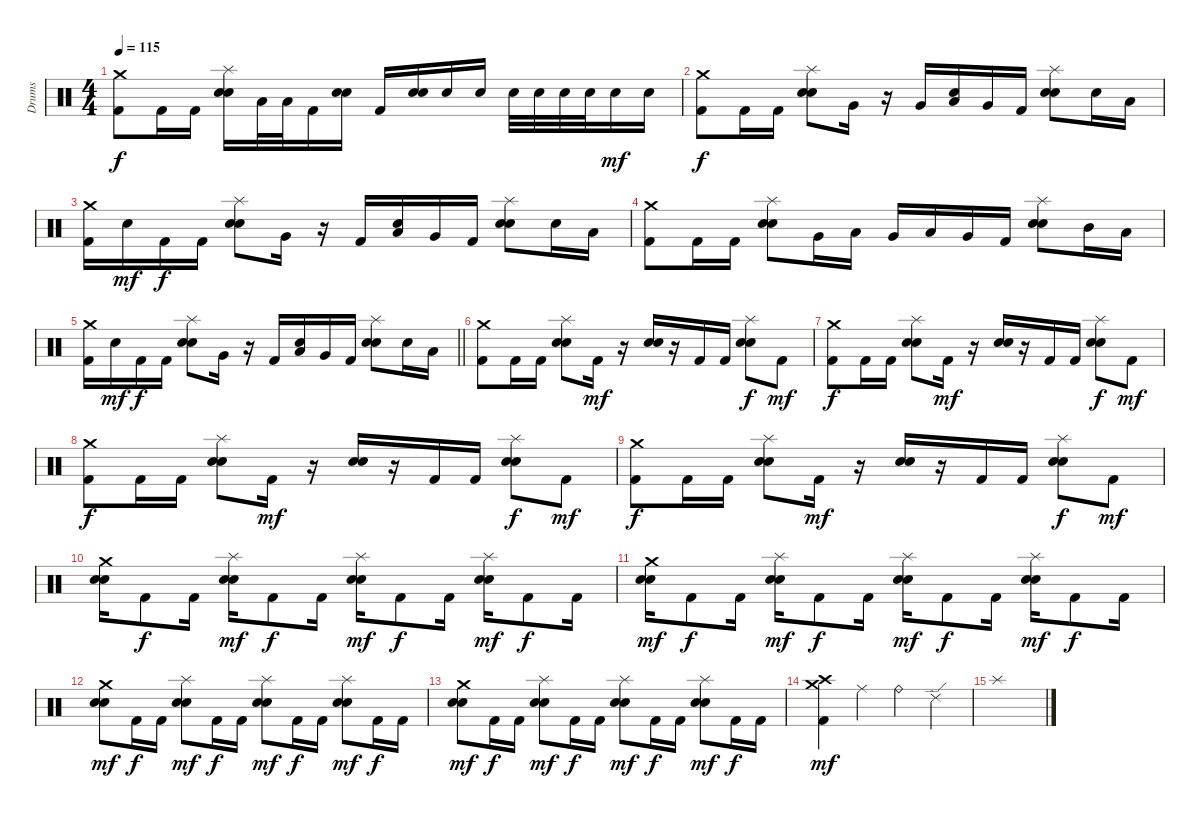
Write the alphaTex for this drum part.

\track ("Drums" "Drums") {instrument percussion}
\staff {score}
\articulation defaults
\ts (4 4)
\tempo 115
\clef neutral
\ks c
("Crash medium (hit)" "Kick (hit) 2").8{dy f} "Kick (hit) 2".16 "Kick (hit) 2".16 ("Splash (hit)" "Electric Snare (hit)" "Snare (hit) 2").16 "Low Tom (hit)".32 "Low Tom (hit)".32 "Kick (hit) 2".16 ("Electric Snare (hit)" "Snare (hit) 2").16 "Kick (hit) 2".16 ("Electric Snare (hit)" "Snare (hit) 2").16 "Electric Snare (hit)".16 "Electric Snare (hit)".16 "Electric Snare (hit)".32 "Electric Snare (hit)".32 "Electric Snare (hit)".32 "Electric Snare (hit)".32 "Electric Snare (hit)".16{dy mf} "Electric Snare (hit)".16 |
("Crash medium (hit)" "Kick (hit) 2").8{dy f} "Kick (hit) 2".16 "Kick (hit) 2".16 ("Splash (hit)" "Electric Snare (hit)" "Snare (hit) 2").8 "Very Low Tom (hit)".16 r.16 "Very Low Tom (hit)".16 ("Electric Snare (hit)" "Low Tom (hit)").16 "Very Low Tom (hit)".16 "Kick (hit) 2".16 ("Splash (hit)" "Electric Snare (hit)" "Snare (hit) 2").8 "Electric Snare (hit)".16 "Low Tom (hit)".16 |
("Crash medium (hit)" "Kick (hit) 2").16 "Electric Snare (hit)".16{dy mf} "Kick (hit) 2".16{dy f} "Kick (hit) 2".16 ("Splash (hit)" "Electric Snare (hit)" "Snare (hit) 2").8 "Very Low Tom (hit)".16 r.16 "Kick (hit) 2".16 ("Electric Snare (hit)" "Low Tom (hit)").16 "Very Low Tom (hit)".16 "Kick (hit) 2".16 ("Splash (hit)" "Electric Snare (hit)" "Snare (hit) 2").8 "Electric Snare (hit)".16 "Low Tom (hit)".16 |
("Crash medium (hit)" "Kick (hit) 2").8 "Kick (hit) 2".16 "Kick (hit) 2".16 ("Splash (hit)" "Electric Snare (hit)" "Snare (hit) 2").8 "Very Low Tom (hit)".16 "Low Tom (hit)".16 "Very Low Tom (hit)".16 "Low Tom (hit)".16 "Very Low Tom (hit)".16 "Kick (hit) 2".16 ("Splash (hit)" "Electric Snare (hit)" "Snare (hit) 2").8 "Mid Tom (hit)".16 "Low Tom (hit)".16 |
\barLineRight lightlight
("Crash medium (hit)" "Kick (hit) 2").16 "Electric Snare (hit)".16{dy mf} "Kick (hit) 2".16{dy f} "Kick (hit) 2".16 ("Splash (hit)" "Electric Snare (hit)" "Snare (hit) 2").8 "Very Low Tom (hit)".16 r.16 "Kick (hit) 2".16 ("Electric Snare (hit)" "Low Tom (hit)").16 "Very Low Tom (hit)".16 "Kick (hit) 2".16 ("Splash (hit)" "Electric Snare (hit)" "Snare (hit) 2").8 "Electric Snare (hit)".16 "Low Tom (hit)".16 |
("Crash medium (hit)" "Kick (hit) 2").8 "Kick (hit) 2".16 "Kick (hit) 2".16 ("Splash (hit)" "Electric Snare (hit)" "Snare (hit) 2").8 "Kick (hit) 2".16{dy mf} r.16 ("Electric Snare (hit)" "Snare (hit) 2").16 r.16 "Kick (hit) 2".16 "Kick (hit) 2".16 ("Splash (hit)" "Electric Snare (hit)" "Snare (hit) 2").8{dy f} "Kick (hit) 2".8{dy mf} |
("Crash medium (hit)" "Kick (hit) 2").8{dy f} "Kick (hit) 2".16 "Kick (hit) 2".16 ("Splash (hit)" "Electric Snare (hit)" "Snare (hit) 2").8 "Kick (hit) 2".16{dy mf} r.16 ("Electric Snare (hit)" "Snare (hit) 2").16 r.16 "Kick (hit) 2".16 "Kick (hit) 2".16 ("Splash (hit)" "Electric Snare (hit)" "Snare (hit) 2").8{dy f} "Kick (hit) 2".8{dy mf} |
("Crash medium (hit)" "Kick (hit) 2").8{dy f} "Kick (hit) 2".16 "Kick (hit) 2".16 ("Splash (hit)" "Electric Snare (hit)" "Snare (hit) 2").8 "Kick (hit) 2".16{dy mf} r.16 ("Electric Snare (hit)" "Snare (hit) 2").16 r.16 "Kick (hit) 2".16 "Kick (hit) 2".16 ("Splash (hit)" "Electric Snare (hit)" "Snare (hit) 2").8{dy f} "Kick (hit) 2".8{dy mf} |
("Crash medium (hit)" "Kick (hit) 2").8{dy f} "Kick (hit) 2".16 "Kick (hit) 2".16 ("Splash (hit)" "Electric Snare (hit)" "Snare (hit) 2").8 "Kick (hit) 2".16{dy mf} r.16 ("Electric Snare (hit)" "Snare (hit) 2").16 r.16 "Kick (hit) 2".16 "Kick (hit) 2".16 ("Splash (hit)" "Electric Snare (hit)" "Snare (hit) 2").8{dy f} "Kick (hit) 2".8{dy mf} |
("Crash medium (hit)" "Electric Snare (hit)" "Snare (hit) 2").16 "Kick (hit) 2".8{dy f} "Kick (hit) 2".16 ("Splash (hit)" "Electric Snare (hit)" "Snare (hit) 2").16{dy mf} "Kick (hit) 2".8{dy f} "Kick (hit) 2".16 ("Splash (hit)" "Electric Snare (hit)" "Snare (hit) 2").16{dy mf} "Kick (hit) 2".8{dy f} "Kick (hit) 2".16 ("Splash (hit)" "Electric Snare (hit)" "Snare (hit) 2").16{dy mf} "Kick (hit) 2".8{dy f} "Kick (hit) 2".16 |
("Crash medium (hit)" "Electric Snare (hit)" "Snare (hit) 2").16{dy mf} "Kick (hit) 2".8{dy f} "Kick (hit) 2".16 ("Splash (hit)" "Electric Snare (hit)" "Snare (hit) 2").16{dy mf} "Kick (hit) 2".8{dy f} "Kick (hit) 2".16 ("Splash (hit)" "Electric Snare (hit)" "Snare (hit) 2").16{dy mf} "Kick (hit) 2".8{dy f} "Kick (hit) 2".16 ("Splash (hit)" "Electric Snare (hit)" "Snare (hit) 2").16{dy mf} "Kick (hit) 2".8{dy f} "Kick (hit) 2".16 |
("Crash medium (hit)" "Electric Snare (hit)" "Snare (hit) 2").8{dy mf} "Kick (hit) 2".16{dy f} "Kick (hit) 2".16 ("Splash (hit)" "Electric Snare (hit)" "Snare (hit) 2").8{dy mf} "Kick (hit) 2".16{dy f} "Kick (hit) 2".16 ("Splash (hit)" "Electric Snare (hit)" "Snare (hit) 2").8{dy mf} "Kick (hit) 2".16{dy f} "Kick (hit) 2".16 ("Splash (hit)" "Electric Snare (hit)" "Snare (hit) 2").8{dy mf} "Kick (hit) 2".16{dy f} "Kick (hit) 2".16 |
("Crash medium (hit)" "Electric Snare (hit)" "Snare (hit) 2").8{dy mf} "Kick (hit) 2".16{dy f} "Kick (hit) 2".16 ("Splash (hit)" "Electric Snare (hit)" "Snare (hit) 2").8{dy mf} "Kick (hit) 2".16{dy f} "Kick (hit) 2".16 ("Splash (hit)" "Electric Snare (hit)" "Snare (hit) 2").8{dy mf} "Kick (hit) 2".16{dy f} "Kick (hit) 2".16 ("Splash (hit)" "Electric Snare (hit)" "Snare (hit) 2").8{dy mf} "Kick (hit) 2".16{dy f} "Kick (hit) 2".16 |
("Crash medium (hit)" "Crash high (hit)" "Kick (hit) 2").4{dy mf} "Ride (middle)".4 "Ride (bell)".4 "Ride (edge) 2".4 |
"Splash (hit)".1
